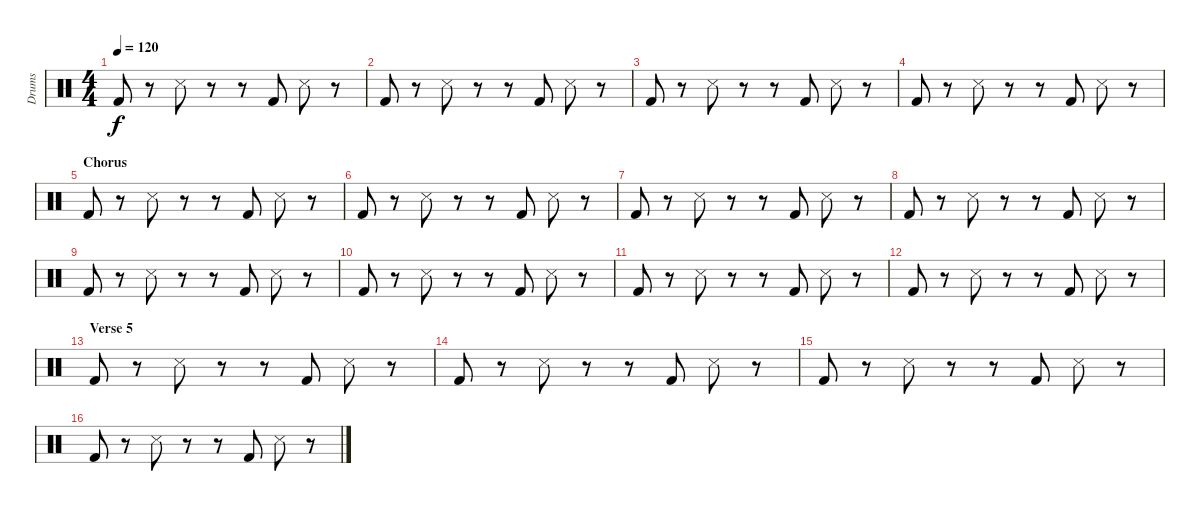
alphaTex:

\track ("Drums" "Drums") {instrument percussion}
\staff {score}
\articulation defaults
\ts (4 4)
\tempo 120
\clef neutral
\ks c "Kick (hit) 2".8{dy f}
r.8 "Snare (side stick) 3".8 r.8 r.8 "Kick (hit) 2".8 "Snare (side stick) 3".8 r.8 |
"Kick (hit) 2".8 r.8 "Snare (side stick) 3".8 r.8 r.8 "Kick (hit) 2".8 "Snare (side stick) 3".8 r.8 |
"Kick (hit) 2".8 r.8 "Snare (side stick) 3".8 r.8 r.8 "Kick (hit) 2".8 "Snare (side stick) 3".8 r.8 |
"Kick (hit) 2".8 r.8 "Snare (side stick) 3".8 r.8 r.8 "Kick (hit) 2".8 "Snare (side stick) 3".8 r.8 |
\section ("" "Chorus")
"Kick (hit) 2".8 r.8 "Snare (side stick) 3".8 r.8 r.8 "Kick (hit) 2".8 "Snare (side stick) 3".8 r.8 |
"Kick (hit) 2".8 r.8 "Snare (side stick) 3".8 r.8 r.8 "Kick (hit) 2".8 "Snare (side stick) 3".8 r.8 |
"Kick (hit) 2".8 r.8 "Snare (side stick) 3".8 r.8 r.8 "Kick (hit) 2".8 "Snare (side stick) 3".8 r.8 |
"Kick (hit) 2".8 r.8 "Snare (side stick) 3".8 r.8 r.8 "Kick (hit) 2".8 "Snare (side stick) 3".8 r.8 |
"Kick (hit) 2".8 r.8 "Snare (side stick) 3".8 r.8 r.8 "Kick (hit) 2".8 "Snare (side stick) 3".8 r.8 |
"Kick (hit) 2".8 r.8 "Snare (side stick) 3".8 r.8 r.8 "Kick (hit) 2".8 "Snare (side stick) 3".8 r.8 |
"Kick (hit) 2".8 r.8 "Snare (side stick) 3".8 r.8 r.8 "Kick (hit) 2".8 "Snare (side stick) 3".8 r.8 |
"Kick (hit) 2".8 r.8 "Snare (side stick) 3".8 r.8 r.8 "Kick (hit) 2".8 "Snare (side stick) 3".8 r.8 |
\section ("" "Verse 5")
"Kick (hit) 2".8 r.8 "Snare (side stick) 3".8 r.8 r.8 "Kick (hit) 2".8 "Snare (side stick) 3".8 r.8 |
"Kick (hit) 2".8 r.8 "Snare (side stick) 3".8 r.8 r.8 "Kick (hit) 2".8 "Snare (side stick) 3".8 r.8 |
"Kick (hit) 2".8 r.8 "Snare (side stick) 3".8 r.8 r.8 "Kick (hit) 2".8 "Snare (side stick) 3".8 r.8 |
"Kick (hit) 2".8 r.8 "Snare (side stick) 3".8 r.8 r.8 "Kick (hit) 2".8 "Snare (side stick) 3".8 r.8
